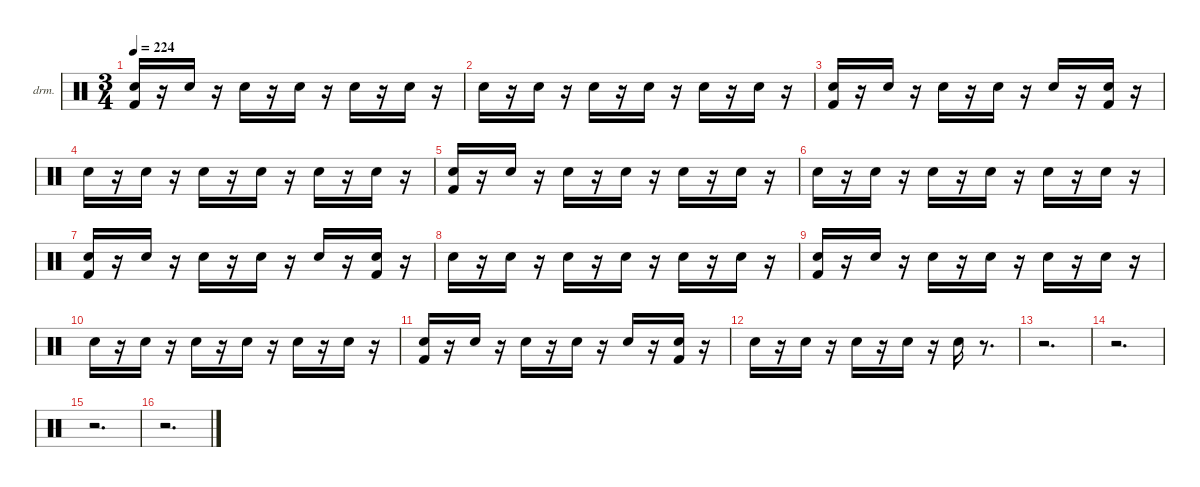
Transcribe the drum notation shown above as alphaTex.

\hideDynamics
\bracketExtendMode nobrackets
\firstSystemTrackNameOrientation horizontal
\otherSystemsTrackNameOrientation horizontal
\track ("Drums" "drm.") {instrument percussion}
\staff {score}
\articulation defaults
\ts (3 4)
\tempo 224
\clef neutral
\ks aminor
("Kick (hit) 2" "Snare (hit) 2").16{dy fff beam Up} r.16{beam Up} "Snare (hit) 2".16{dy pp beam Up} r.16{beam Up} "Snare (hit) 2".16{dy ppp beam Down} r.16{beam Down} "Snare (hit) 2".16{dy mp beam Down} r.16{beam Down} "Snare (hit) 2".16{dy ppp beam Down} r.16{beam Down} "Snare (hit) 2".16{beam Down} r.16{beam Down} |
"Snare (hit) 2".16{dy fff beam Down} r.16{beam Down} "Snare (hit) 2".16{dy ppp beam Down} r.16{beam Down} "Snare (hit) 2".16{dy p beam Down} r.16{beam Down} "Snare (hit) 2".16{dy ff beam Down} r.16{beam Down} "Snare (hit) 2".16{dy ppp beam Down} r.16{beam Down} "Snare (hit) 2".16{dy f beam Down} r.16{beam Down} |
("Kick (hit) 2" "Snare (hit) 2").16{beam Up} r.16{beam Up} "Snare (hit) 2".16{dy ppp beam Up} r.16{beam Up} "Snare (hit) 2".16{beam Down} r.16{beam Down} "Snare (hit) 2".16{dy mp beam Down} r.16{beam Down} "Snare (hit) 2".16{dy ppp beam Up} r.16{beam Up} ("Kick (hit) 2" "Snare (hit) 2").16{dy mf beam Up} r.16{beam Up} |
"Snare (hit) 2".16{dy ff beam Down} r.16{beam Down} "Snare (hit) 2".16{dy ppp beam Down} r.16{beam Down} "Snare (hit) 2".16{dy mf beam Down} r.16{beam Down} "Snare (hit) 2".16{dy ppp beam Down} r.16{beam Down} "Snare (hit) 2".16{dy fff beam Down} r.16{beam Down} "Snare (hit) 2".16{dy ppp beam Down} r.16{beam Down} |
("Kick (hit) 2" "Snare (hit) 2").16{dy fff beam Up} r.16{beam Up} "Snare (hit) 2".16{dy pp beam Up} r.16{beam Up} "Snare (hit) 2".16{dy ppp beam Down} r.16{beam Down} "Snare (hit) 2".16{dy mp beam Down} r.16{beam Down} "Snare (hit) 2".16{dy ppp beam Down} r.16{beam Down} "Snare (hit) 2".16{beam Down} r.16{beam Down} |
"Snare (hit) 2".16{dy fff beam Down} r.16{beam Down} "Snare (hit) 2".16{dy ppp beam Down} r.16{beam Down} "Snare (hit) 2".16{dy mp beam Down} r.16{beam Down} "Snare (hit) 2".16{dy ff beam Down} r.16{beam Down} "Snare (hit) 2".16{dy ppp beam Down} r.16{beam Down} "Snare (hit) 2".16{dy ff beam Down} r.16{beam Down} |
("Kick (hit) 2" "Snare (hit) 2").16{dy f beam Up} r.16{beam Up} "Snare (hit) 2".16{dy pp beam Up} r.16{beam Up} "Snare (hit) 2".16{dy ppp beam Down} r.16{beam Down} "Snare (hit) 2".16{dy mp beam Down} r.16{beam Down} "Snare (hit) 2".16{dy ppp beam Up} r.16{beam Up} ("Kick (hit) 2" "Snare (hit) 2").16{dy mf beam Up} r.16{beam Up} |
"Snare (hit) 2".16{dy ff beam Down} r.16{beam Down} "Snare (hit) 2".16{dy ppp beam Down} r.16{beam Down} "Snare (hit) 2".16{dy mf beam Down} r.16{beam Down} "Snare (hit) 2".16{dy ppp beam Down} r.16{beam Down} "Snare (hit) 2".16{dy fff beam Down} r.16{beam Down} "Snare (hit) 2".16{dy ppp beam Down} r.16{beam Down} |
("Kick (hit) 2" "Snare (hit) 2").16{dy fff beam Up} r.16{beam Up} "Snare (hit) 2".16{dy ppp beam Up} r.16{beam Up} "Snare (hit) 2".16{beam Down} r.16{beam Down} "Snare (hit) 2".16{dy mp beam Down} r.16{beam Down} "Snare (hit) 2".16{dy ppp beam Down} r.16{beam Down} "Snare (hit) 2".16{beam Down} r.16{beam Down} |
"Snare (hit) 2".16{dy fff beam Down} r.16{beam Down} "Snare (hit) 2".16{dy ppp beam Down} r.16{beam Down} "Snare (hit) 2".16{dy mp beam Down} r.16{beam Down} "Snare (hit) 2".16{dy ff beam Down} r.16{beam Down} "Snare (hit) 2".16{dy ppp beam Down} r.16{beam Down} "Snare (hit) 2".16{dy ff beam Down} r.16{beam Down} |
("Kick (hit) 2" "Snare (hit) 2").16{dy f beam Up} r.16{beam Up} "Snare (hit) 2".16{dy ppp beam Up} r.16{beam Up} "Snare (hit) 2".16{beam Down} r.16{beam Down} "Snare (hit) 2".16{dy mp beam Down} r.16{beam Down} "Snare (hit) 2".16{dy ppp beam Up} r.16{beam Up} ("Kick (hit) 2" "Snare (hit) 2").16{dy mf beam Up} r.16{beam Up} |
"Snare (hit) 2".16{dy ff beam Down} r.16{beam Down} "Snare (hit) 2".16{dy ppp beam Down} r.16{beam Down} "Snare (hit) 2".16{dy mf beam Down} r.16{beam Down} "Snare (hit) 2".16{dy ppp beam Down} r.16{beam Down} "Snare (hit) 2".16{dy ff beam Down} r.8{d beam Down} |
r.2{d beam Down} |
r.2{d beam Down} |
r.2{d beam Down} |
r.2{d beam Down}
